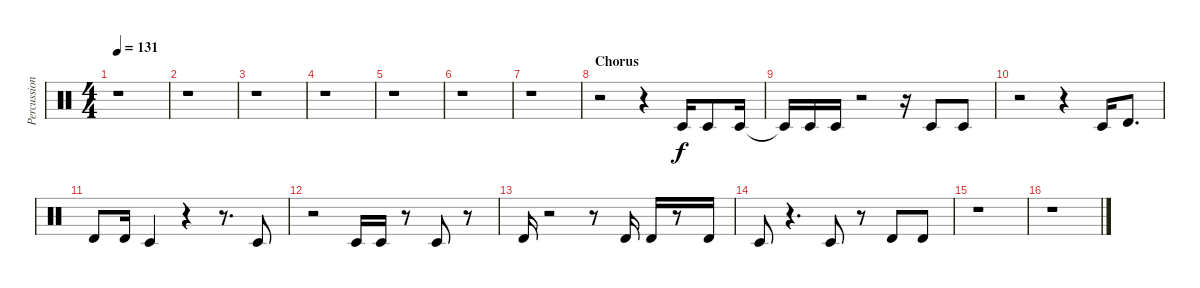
\track ("Percussion" "Percussion") {instrument percussion}
\staff {score}
\articulation defaults
\ts (4 4)
\tempo 131
\clef neutral
\ks c
r.1{dy f} |
r.1 |
r.1 |
r.1 |
r.1 |
r.1 |
r.1 |
\section ("" "Chorus")
r.2 r.4 "Timbale low (hit)".16 "Timbale low (hit)".8 "Timbale low (hit)".16 |
"Timbale low (hit)"{t}.16 "Timbale low (hit)".16 "Timbale low (hit)".16 r.2 r.16 "Timbale low (hit)".8 "Timbale low (hit)".8 |
r.2 r.4 "Timbale low (hit)".16 "Timbale high (hit)".8{d} |
"Timbale high (hit)".8 "Timbale high (hit)".16 "Timbale low (hit)".4 r.4 r.8{d} "Timbale low (hit)".8 |
r.2 "Timbale low (hit)".16 "Timbale low (hit)".16 r.8 "Timbale low (hit)".8 r.8 |
"Timbale high (hit)".16 r.2 r.8 "Timbale high (hit)".16 "Timbale high (hit)".16 r.8 "Timbale high (hit)".16 |
"Timbale low (hit)".8 r.4{d} "Timbale low (hit)".8 r.8 "Timbale high (hit)".8 "Timbale high (hit)".8 |
r.1 |
r.1
